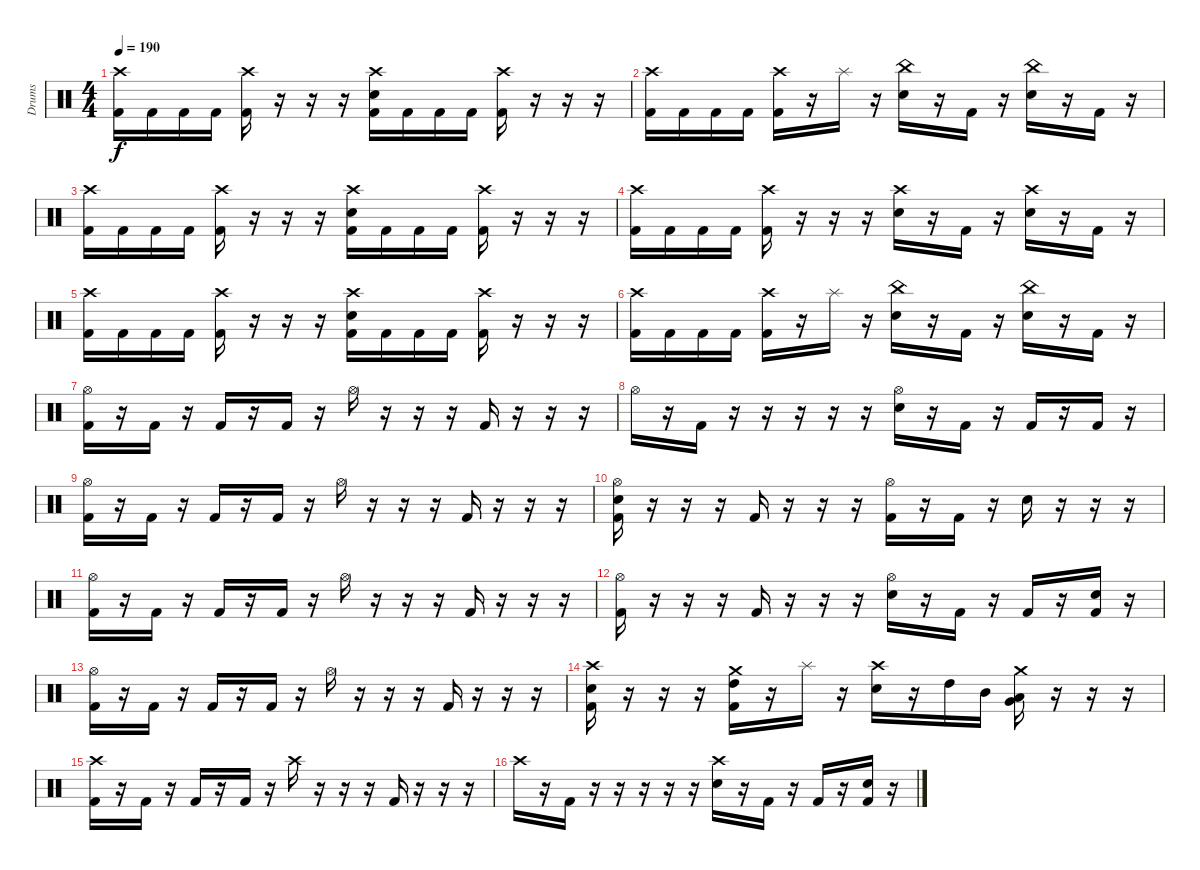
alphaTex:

\track ("Drums" "Drums") {instrument percussion}
\staff {score}
\articulation defaults
\ts (4 4)
\tempo 190
\clef neutral
\ks c
("Crash high (hit)" "Kick (hit) 2").16{dy f} "Kick (hit) 2".16 "Kick (hit) 2".16 "Kick (hit) 2".16 ("Crash high (hit)" "Kick (hit) 2").16 r.16 r.16 r.16 ("Crash high (hit)" "Electric Snare (hit)" "Kick (hit) 2").16 "Kick (hit) 2".16 "Kick (hit) 2".16 "Kick (hit) 2".16 ("Crash high (hit)" "Kick (hit) 2").16 r.16 r.16 r.16 |
("Crash high (hit)" "Kick (hit) 2").16 "Kick (hit) 2".16 "Kick (hit) 2".16 "Kick (hit) 2".16 ("Crash high (hit)" "Kick (hit) 2").16 r.16 "Splash (hit)".16 r.16 ("China (hit)" "Electric Snare (hit)").16 r.16 "Kick (hit) 2".16 r.16 ("China (hit)" "Electric Snare (hit)").16 r.16 "Kick (hit) 2".16 r.16 |
("Crash high (hit)" "Kick (hit) 2").16 "Kick (hit) 2".16 "Kick (hit) 2".16 "Kick (hit) 2".16 ("Crash high (hit)" "Kick (hit) 2").16 r.16 r.16 r.16 ("Crash high (hit)" "Electric Snare (hit)" "Kick (hit) 2").16 "Kick (hit) 2".16 "Kick (hit) 2".16 "Kick (hit) 2".16 ("Crash high (hit)" "Kick (hit) 2").16 r.16 r.16 r.16 |
("Crash high (hit)" "Kick (hit) 2").16 "Kick (hit) 2".16 "Kick (hit) 2".16 "Kick (hit) 2".16 ("Crash high (hit)" "Kick (hit) 2").16 r.16 r.16 r.16 ("Crash high (hit)" "Electric Snare (hit)").16 r.16 "Kick (hit) 2".16 r.16 ("Crash high (hit)" "Electric Snare (hit)").16 r.16 "Kick (hit) 2".16 r.16 |
("Crash high (hit)" "Kick (hit) 2").16 "Kick (hit) 2".16 "Kick (hit) 2".16 "Kick (hit) 2".16 ("Crash high (hit)" "Kick (hit) 2").16 r.16 r.16 r.16 ("Crash high (hit)" "Electric Snare (hit)" "Kick (hit) 2").16 "Kick (hit) 2".16 "Kick (hit) 2".16 "Kick (hit) 2".16 ("Crash high (hit)" "Kick (hit) 2").16 r.16 r.16 r.16 |
("Crash high (hit)" "Kick (hit) 2").16 "Kick (hit) 2".16 "Kick (hit) 2".16 "Kick (hit) 2".16 ("Crash high (hit)" "Kick (hit) 2").16 r.16 "Splash (hit)".16 r.16 ("China (hit)" "Electric Snare (hit)").16 r.16 "Kick (hit) 2".16 r.16 ("China (hit)" "Electric Snare (hit)").16 r.16 "Kick (hit) 2".16 r.16 |
("Hi-Hat (open)" "Kick (hit) 2").16 r.16 "Kick (hit) 2".16 r.16 "Kick (hit) 2".16 r.16 "Kick (hit) 2".16 r.16 "Hi-Hat (open)".16 r.16 r.16 r.16 "Kick (hit) 2".16 r.16 r.16 r.16 |
"Hi-Hat (open)".16 r.16 "Kick (hit) 2".16 r.16 r.16 r.16 r.16 r.16 ("Hi-Hat (open)" "Electric Snare (hit)").16 r.16 "Kick (hit) 2".16 r.16 "Kick (hit) 2".16 r.16 "Kick (hit) 2".16 r.16 |
("Hi-Hat (open)" "Kick (hit) 2").16 r.16 "Kick (hit) 2".16 r.16 "Kick (hit) 2".16 r.16 "Kick (hit) 2".16 r.16 "Hi-Hat (open)".16 r.16 r.16 r.16 "Kick (hit) 2".16 r.16 r.16 r.16 |
("Hi-Hat (open)" "Electric Snare (hit)" "Kick (hit) 2").16 r.16 r.16 r.16 "Kick (hit) 2".16 r.16 r.16 r.16 ("Hi-Hat (open)" "Kick (hit) 2").16 r.16 "Kick (hit) 2".16 r.16 "Electric Snare (hit)".16 r.16 r.16 r.16 |
("Hi-Hat (open)" "Kick (hit) 2").16 r.16 "Kick (hit) 2".16 r.16 "Kick (hit) 2".16 r.16 "Kick (hit) 2".16 r.16 "Hi-Hat (open)".16 r.16 r.16 r.16 "Kick (hit) 2".16 r.16 r.16 r.16 |
("Hi-Hat (open)" "Kick (hit) 2").16 r.16 r.16 r.16 "Kick (hit) 2".16 r.16 r.16 r.16 ("Hi-Hat (open)" "Electric Snare (hit)").16 r.16 "Kick (hit) 2".16 r.16 "Kick (hit) 2".16 r.16 ("Electric Snare (hit)" "Kick (hit) 2").16 r.16 |
("Hi-Hat (open)" "Kick (hit) 2").16 r.16 "Kick (hit) 2".16 r.16 "Kick (hit) 2".16 r.16 "Kick (hit) 2".16 r.16 "Hi-Hat (open)".16 r.16 r.16 r.16 "Kick (hit) 2".16 r.16 r.16 r.16 |
("Crash high (hit)" "Electric Snare (hit)" "Kick (hit) 2").16 r.16 r.16 r.16 ("Crash medium (hit)" "High Tom (hit)" "Kick (hit) 2").16 r.16 "Splash (hit)".16 r.16 ("Crash high (hit)" "Electric Snare (hit)").16 r.16 "High Tom (hit)".16 "Mid Tom (hit)".16 ("Crash medium (hit)" "Very Low Tom (hit)" "Low Tom (hit)").16 r.16 r.16 r.16 |
("Crash high (hit)" "Kick (hit) 2").16 r.16 "Kick (hit) 2".16 r.16 "Kick (hit) 2".16 r.16 "Kick (hit) 2".16 r.16 "Crash high (hit)".16 r.16 r.16 r.16 "Kick (hit) 2".16 r.16 r.16 r.16 |
"Crash high (hit)".16 r.16 "Kick (hit) 2".16 r.16 r.16 r.16 r.16 r.16 ("Crash high (hit)" "Electric Snare (hit)").16 r.16 "Kick (hit) 2".16 r.16 "Kick (hit) 2".16 r.16 ("Electric Snare (hit)" "Kick (hit) 2").16 r.16
